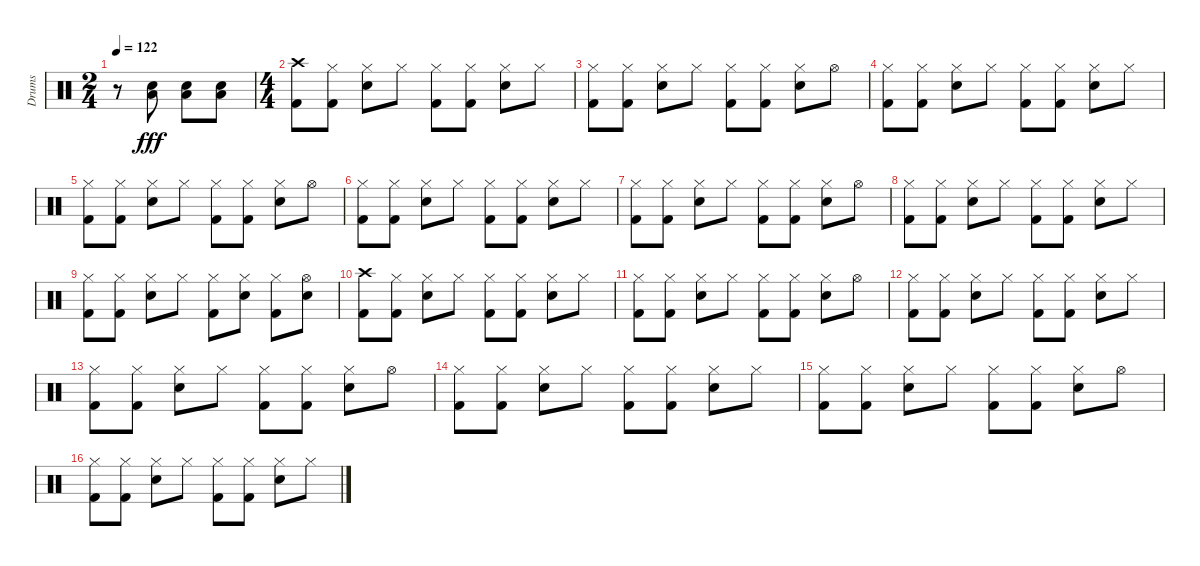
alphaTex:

\track ("Drums" "Drums") {instrument percussion}
\staff {score}
\articulation defaults
\ts (2 4)
\tempo 122
\clef neutral
\ks c
r.8{dy fff} ("Snare (hit) 2" "Low Floor Tom (hit)").8 ("Snare (hit) 2" "Low Floor Tom (hit)").8 ("Snare (hit) 2" "Low Floor Tom (hit)").8 |
\ts (4 4)
("Crash high (hit)" "Kick (hit) 2").8 ("Hi-Hat (closed)" "Kick (hit) 2").8 ("Hi-Hat (closed)" "Snare (hit) 2").8 "Hi-Hat (closed)".8 ("Hi-Hat (closed)" "Kick (hit) 2").8 ("Hi-Hat (closed)" "Kick (hit) 2").8 ("Hi-Hat (closed)" "Snare (hit) 2").8 "Hi-Hat (closed)".8 |
("Hi-Hat (closed)" "Kick (hit) 2").8 ("Hi-Hat (closed)" "Kick (hit) 2").8 ("Hi-Hat (closed)" "Snare (hit) 2").8 "Hi-Hat (closed)".8 ("Hi-Hat (closed)" "Kick (hit) 2").8 ("Hi-Hat (closed)" "Kick (hit) 2").8 ("Hi-Hat (closed)" "Snare (hit) 2").8 "Hi-Hat (open)".8 |
("Hi-Hat (closed)" "Kick (hit) 2").8 ("Hi-Hat (closed)" "Kick (hit) 2").8 ("Hi-Hat (closed)" "Snare (hit) 2").8 "Hi-Hat (closed)".8 ("Hi-Hat (closed)" "Kick (hit) 2").8 ("Hi-Hat (closed)" "Kick (hit) 2").8 ("Hi-Hat (closed)" "Snare (hit) 2").8 "Hi-Hat (closed)".8 |
("Hi-Hat (closed)" "Kick (hit) 2").8 ("Hi-Hat (closed)" "Kick (hit) 2").8 ("Hi-Hat (closed)" "Snare (hit) 2").8 "Hi-Hat (closed)".8 ("Hi-Hat (closed)" "Kick (hit) 2").8 ("Hi-Hat (closed)" "Kick (hit) 2").8 ("Hi-Hat (closed)" "Snare (hit) 2").8 "Hi-Hat (open)".8 |
("Hi-Hat (closed)" "Kick (hit) 2").8 ("Hi-Hat (closed)" "Kick (hit) 2").8 ("Hi-Hat (closed)" "Snare (hit) 2").8 "Hi-Hat (closed)".8 ("Hi-Hat (closed)" "Kick (hit) 2").8 ("Hi-Hat (closed)" "Kick (hit) 2").8 ("Hi-Hat (closed)" "Snare (hit) 2").8 "Hi-Hat (closed)".8 |
("Hi-Hat (closed)" "Kick (hit) 2").8 ("Hi-Hat (closed)" "Kick (hit) 2").8 ("Hi-Hat (closed)" "Snare (hit) 2").8 "Hi-Hat (closed)".8 ("Hi-Hat (closed)" "Kick (hit) 2").8 ("Hi-Hat (closed)" "Kick (hit) 2").8 ("Hi-Hat (closed)" "Snare (hit) 2").8 "Hi-Hat (open)".8 |
("Hi-Hat (closed)" "Kick (hit) 2").8 ("Hi-Hat (closed)" "Kick (hit) 2").8 ("Hi-Hat (closed)" "Snare (hit) 2").8 "Hi-Hat (closed)".8 ("Hi-Hat (closed)" "Kick (hit) 2").8 ("Hi-Hat (closed)" "Kick (hit) 2").8 ("Hi-Hat (closed)" "Snare (hit) 2").8 "Hi-Hat (closed)".8 |
("Hi-Hat (closed)" "Kick (hit) 2").8 ("Hi-Hat (closed)" "Kick (hit) 2").8 ("Hi-Hat (closed)" "Snare (hit) 2").8 "Hi-Hat (closed)".8 ("Hi-Hat (closed)" "Kick (hit) 2").8 ("Hi-Hat (closed)" "Snare (hit) 2").8 ("Hi-Hat (closed)" "Kick (hit) 2").8 ("Hi-Hat (open)" "Snare (hit) 2").8 |
("Crash high (hit)" "Kick (hit) 2").8 ("Hi-Hat (closed)" "Kick (hit) 2").8 ("Hi-Hat (closed)" "Snare (hit) 2").8 "Hi-Hat (closed)".8 ("Hi-Hat (closed)" "Kick (hit) 2").8 ("Hi-Hat (closed)" "Kick (hit) 2").8 ("Hi-Hat (closed)" "Snare (hit) 2").8 "Hi-Hat (closed)".8 |
("Hi-Hat (closed)" "Kick (hit) 2").8 ("Hi-Hat (closed)" "Kick (hit) 2").8 ("Hi-Hat (closed)" "Snare (hit) 2").8 "Hi-Hat (closed)".8 ("Hi-Hat (closed)" "Kick (hit) 2").8 ("Hi-Hat (closed)" "Kick (hit) 2").8 ("Hi-Hat (closed)" "Snare (hit) 2").8 "Hi-Hat (open)".8 |
("Hi-Hat (closed)" "Kick (hit) 2").8 ("Hi-Hat (closed)" "Kick (hit) 2").8 ("Hi-Hat (closed)" "Snare (hit) 2").8 "Hi-Hat (closed)".8 ("Hi-Hat (closed)" "Kick (hit) 2").8 ("Hi-Hat (closed)" "Kick (hit) 2").8 ("Hi-Hat (closed)" "Snare (hit) 2").8 "Hi-Hat (closed)".8 |
("Hi-Hat (closed)" "Kick (hit) 2").8 ("Hi-Hat (closed)" "Kick (hit) 2").8 ("Hi-Hat (closed)" "Snare (hit) 2").8 "Hi-Hat (closed)".8 ("Hi-Hat (closed)" "Kick (hit) 2").8 ("Hi-Hat (closed)" "Kick (hit) 2").8 ("Hi-Hat (closed)" "Snare (hit) 2").8 "Hi-Hat (open)".8 |
("Hi-Hat (closed)" "Kick (hit) 2").8 ("Hi-Hat (closed)" "Kick (hit) 2").8 ("Hi-Hat (closed)" "Snare (hit) 2").8 "Hi-Hat (closed)".8 ("Hi-Hat (closed)" "Kick (hit) 2").8 ("Hi-Hat (closed)" "Kick (hit) 2").8 ("Hi-Hat (closed)" "Snare (hit) 2").8 "Hi-Hat (closed)".8 |
("Hi-Hat (closed)" "Kick (hit) 2").8 ("Hi-Hat (closed)" "Kick (hit) 2").8 ("Hi-Hat (closed)" "Snare (hit) 2").8 "Hi-Hat (closed)".8 ("Hi-Hat (closed)" "Kick (hit) 2").8 ("Hi-Hat (closed)" "Kick (hit) 2").8 ("Hi-Hat (closed)" "Snare (hit) 2").8 "Hi-Hat (open)".8 |
("Hi-Hat (closed)" "Kick (hit) 2").8 ("Hi-Hat (closed)" "Kick (hit) 2").8 ("Hi-Hat (closed)" "Snare (hit) 2").8 "Hi-Hat (closed)".8 ("Hi-Hat (closed)" "Kick (hit) 2").8 ("Hi-Hat (closed)" "Kick (hit) 2").8 ("Hi-Hat (closed)" "Snare (hit) 2").8 "Hi-Hat (closed)".8
